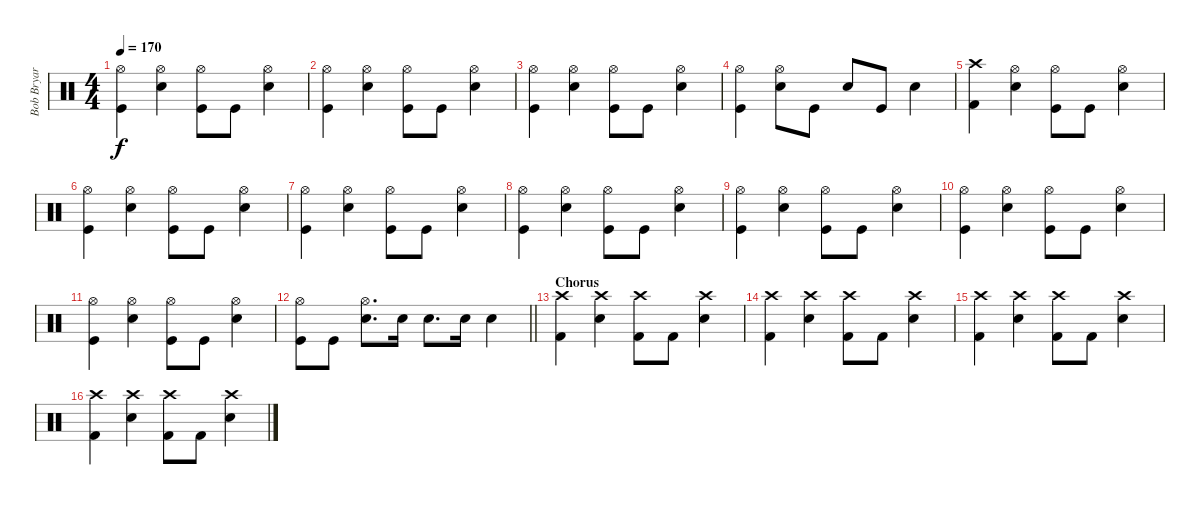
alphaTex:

\track ("Bob Bryar - Drums" "Bob Bryar ") {instrument percussion}
\staff {score}
\articulation defaults
\ts (4 4)
\tempo 170
\clef neutral
\ks c
("Hi-Hat (open)" "Kick (hit)").4{dy f} ("Snare (hit) 2" "Hi-Hat (open)").4 ("Hi-Hat (open)" "Kick (hit)").8 "Kick (hit)".8 ("Snare (hit) 2" "Hi-Hat (open)").4 |
("Hi-Hat (open)" "Kick (hit)").4 ("Snare (hit) 2" "Hi-Hat (open)").4 ("Hi-Hat (open)" "Kick (hit)").8 "Kick (hit)".8 ("Snare (hit) 2" "Hi-Hat (open)").4 |
("Hi-Hat (open)" "Kick (hit)").4 ("Snare (hit) 2" "Hi-Hat (open)").4 ("Hi-Hat (open)" "Kick (hit)").8 "Kick (hit)".8 ("Snare (hit) 2" "Hi-Hat (open)").4 |
("Hi-Hat (open)" "Kick (hit)").4 ("Snare (hit) 2" "Hi-Hat (open)").8 "Kick (hit)".8 "Snare (hit) 2".8 "Kick (hit)".8 "Snare (hit) 2".4 |
("Kick (hit) 2" "Crash high (hit)").4 ("Hi-Hat (open)" "Snare (hit) 2").4 ("Hi-Hat (open)" "Kick (hit)").8 "Kick (hit)".8 ("Snare (hit) 2" "Hi-Hat (open)").4 |
("Hi-Hat (open)" "Kick (hit)").4 ("Snare (hit) 2" "Hi-Hat (open)").4 ("Hi-Hat (open)" "Kick (hit)").8 "Kick (hit)".8 ("Snare (hit) 2" "Hi-Hat (open)").4 |
("Hi-Hat (open)" "Kick (hit)").4 ("Snare (hit) 2" "Hi-Hat (open)").4 ("Hi-Hat (open)" "Kick (hit)").8 "Kick (hit)".8 ("Snare (hit) 2" "Hi-Hat (open)").4 |
("Hi-Hat (open)" "Kick (hit)").4 ("Snare (hit) 2" "Hi-Hat (open)").4 ("Hi-Hat (open)" "Kick (hit)").8 "Kick (hit)".8 ("Snare (hit) 2" "Hi-Hat (open)").4 |
("Hi-Hat (open)" "Kick (hit)").4 ("Snare (hit) 2" "Hi-Hat (open)").4 ("Hi-Hat (open)" "Kick (hit)").8 "Kick (hit)".8 ("Snare (hit) 2" "Hi-Hat (open)").4 |
("Hi-Hat (open)" "Kick (hit)").4 ("Snare (hit) 2" "Hi-Hat (open)").4 ("Hi-Hat (open)" "Kick (hit)").8 "Kick (hit)".8 ("Snare (hit) 2" "Hi-Hat (open)").4 |
("Hi-Hat (open)" "Kick (hit)").4 ("Snare (hit) 2" "Hi-Hat (open)").4 ("Hi-Hat (open)" "Kick (hit)").8 "Kick (hit)".8 ("Snare (hit) 2" "Hi-Hat (open)").4 |
\barLineRight lightlight
("Hi-Hat (open)" "Kick (hit)").8 "Kick (hit)".8 ("Snare (hit) 2" "Hi-Hat (open)").8{d} "Snare (hit) 2".16 "Snare (hit) 2".8{d} "Snare (hit) 2".16 "Snare (hit) 2".4 |
\section ("" "Chorus")
("Crash high (hit)" "Kick (hit) 2").4 ("Snare (hit) 2" "Crash high (hit)").4 ("Kick (hit) 2" "Crash high (hit)").8 "Kick (hit) 2".8 ("Snare (hit) 2" "Crash high (hit)").4 |
("Crash high (hit)" "Kick (hit) 2").4 ("Snare (hit) 2" "Crash high (hit)").4 ("Kick (hit) 2" "Crash high (hit)").8 "Kick (hit) 2".8 ("Snare (hit) 2" "Crash high (hit)").4 |
("Crash high (hit)" "Kick (hit) 2").4 ("Snare (hit) 2" "Crash high (hit)").4 ("Kick (hit) 2" "Crash high (hit)").8 "Kick (hit) 2".8 ("Snare (hit) 2" "Crash high (hit)").4 |
("Crash high (hit)" "Kick (hit) 2").4 ("Snare (hit) 2" "Crash high (hit)").4 ("Kick (hit) 2" "Crash high (hit)").8 "Kick (hit) 2".8 ("Snare (hit) 2" "Crash high (hit)").4
